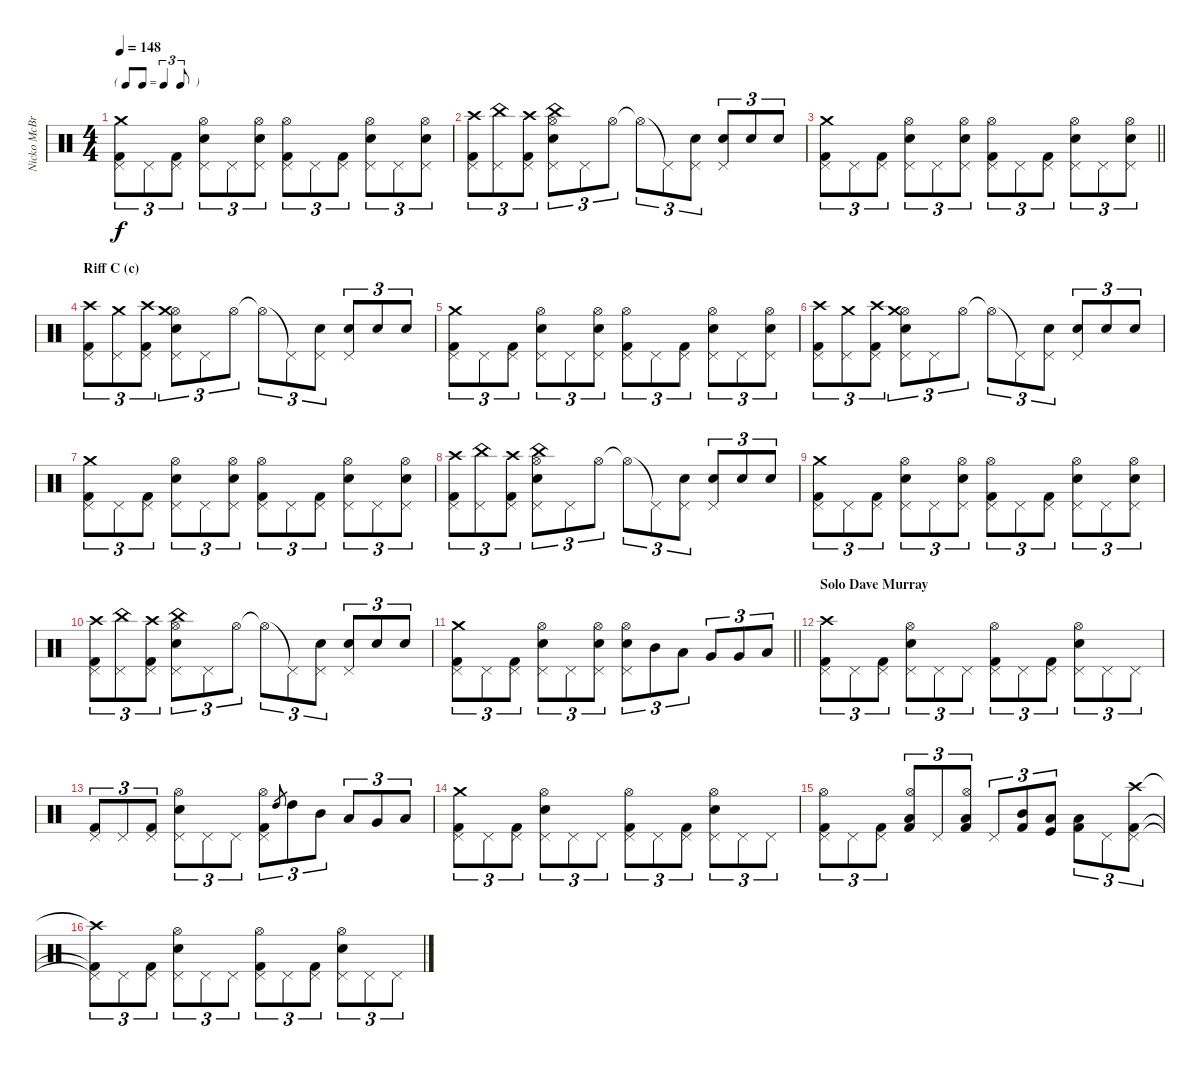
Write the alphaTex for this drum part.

\track ("Nicko McBrain" "Nicko McBr") {instrument percussion}
\staff {score}
\articulation defaults
\ts (4 4)
\tf triplet8th
\tempo 148
\clef neutral
\ks c
("Kick (hit) 2" "Pedal Hi-Hat (hit)" "Crash medium (hit)").8{tu (3 2) dy f} "Pedal Hi-Hat (hit)".8{tu (3 2)} ("Kick (hit) 2" "Pedal Hi-Hat (hit)").8{tu (3 2)} ("Snare (hit) 2" "Pedal Hi-Hat (hit)" "Hi-Hat (open)").8{tu (3 2)} "Pedal Hi-Hat (hit)".8{tu (3 2)} ("Snare (hit) 2" "Pedal Hi-Hat (hit)" "Hi-Hat (open)").8{tu (3 2)} ("Kick (hit) 2" "Pedal Hi-Hat (hit)" "Hi-Hat (open)").8{tu (3 2)} "Pedal Hi-Hat (hit)".8{tu (3 2)} ("Kick (hit) 2" "Pedal Hi-Hat (hit)").8{tu (3 2)} ("Snare (hit) 2" "Pedal Hi-Hat (hit)" "Hi-Hat (open)").8{tu (3 2)} "Pedal Hi-Hat (hit)".8{tu (3 2)} ("Snare (hit) 2" "Pedal Hi-Hat (hit)" "Hi-Hat (open)").8{tu (3 2)} |
("Kick (hit) 2" "Pedal Hi-Hat (hit)" "Crash high (hit)").8{tu (3 2)} ("Pedal Hi-Hat (hit)" "China (hit)").8{tu (3 2)} ("Kick (hit) 2" "Pedal Hi-Hat (hit)" "Crash high (hit)").8{tu (3 2)} ("Snare (hit) 2" "Pedal Hi-Hat (hit)" "Hi-Hat (open)" "China (hit)").8{tu (3 2)} "Pedal Hi-Hat (hit)".8{tu (3 2)} "Hi-Hat (open)".8{tu (3 2)} "Hi-Hat (open)"{t}.8{tu (3 2)} "Pedal Hi-Hat (hit)"{t}.8{tu (3 2)} ("Snare (hit) 2" "Pedal Hi-Hat (hit)").8{tu (3 2)} ("Snare (hit) 2" "Pedal Hi-Hat (hit)").8{tu (3 2)} "Snare (hit) 2".8{tu (3 2)} "Snare (hit) 2".8{tu (3 2)} |
\barLineRight lightlight
("Kick (hit) 2" "Pedal Hi-Hat (hit)" "Crash medium (hit)").8{tu (3 2)} "Pedal Hi-Hat (hit)".8{tu (3 2)} ("Kick (hit) 2" "Pedal Hi-Hat (hit)").8{tu (3 2)} ("Snare (hit) 2" "Pedal Hi-Hat (hit)" "Hi-Hat (open)").8{tu (3 2)} "Pedal Hi-Hat (hit)".8{tu (3 2)} ("Snare (hit) 2" "Pedal Hi-Hat (hit)" "Hi-Hat (open)").8{tu (3 2)} ("Kick (hit) 2" "Pedal Hi-Hat (hit)" "Hi-Hat (open)").8{tu (3 2)} "Pedal Hi-Hat (hit)".8{tu (3 2)} ("Kick (hit) 2" "Pedal Hi-Hat (hit)").8{tu (3 2)} ("Snare (hit) 2" "Pedal Hi-Hat (hit)" "Hi-Hat (open)").8{tu (3 2)} "Pedal Hi-Hat (hit)".8{tu (3 2)} ("Snare (hit) 2" "Pedal Hi-Hat (hit)" "Hi-Hat (open)").8{tu (3 2)} |
\section ("" "Riff C (c)")
("Kick (hit) 2" "Pedal Hi-Hat (hit)" "Crash high (hit)").8{tu (3 2)} ("Pedal Hi-Hat (hit)" "Crash medium (hit)").8{tu (3 2)} ("Kick (hit) 2" "Pedal Hi-Hat (hit)" "Crash high (hit)").8{tu (3 2)} ("Snare (hit) 2" "Pedal Hi-Hat (hit)" "Hi-Hat (open)" "Crash medium (hit)").8{tu (3 2)} "Pedal Hi-Hat (hit)".8{tu (3 2)} "Hi-Hat (open)".8{tu (3 2)} "Hi-Hat (open)"{t}.8{tu (3 2)} "Pedal Hi-Hat (hit)"{t}.8{tu (3 2)} ("Snare (hit) 2" "Pedal Hi-Hat (hit)").8{tu (3 2)} ("Snare (hit) 2" "Pedal Hi-Hat (hit)").8{tu (3 2)} "Snare (hit) 2".8{tu (3 2)} "Snare (hit) 2".8{tu (3 2)} |
("Kick (hit) 2" "Pedal Hi-Hat (hit)" "Crash medium (hit)").8{tu (3 2)} "Pedal Hi-Hat (hit)".8{tu (3 2)} ("Kick (hit) 2" "Pedal Hi-Hat (hit)").8{tu (3 2)} ("Snare (hit) 2" "Pedal Hi-Hat (hit)" "Hi-Hat (open)").8{tu (3 2)} "Pedal Hi-Hat (hit)".8{tu (3 2)} ("Snare (hit) 2" "Pedal Hi-Hat (hit)" "Hi-Hat (open)").8{tu (3 2)} ("Kick (hit) 2" "Pedal Hi-Hat (hit)" "Hi-Hat (open)").8{tu (3 2)} "Pedal Hi-Hat (hit)".8{tu (3 2)} ("Kick (hit) 2" "Pedal Hi-Hat (hit)").8{tu (3 2)} ("Snare (hit) 2" "Pedal Hi-Hat (hit)" "Hi-Hat (open)").8{tu (3 2)} "Pedal Hi-Hat (hit)".8{tu (3 2)} ("Snare (hit) 2" "Pedal Hi-Hat (hit)" "Hi-Hat (open)").8{tu (3 2)} |
("Kick (hit) 2" "Pedal Hi-Hat (hit)" "Crash high (hit)").8{tu (3 2)} ("Pedal Hi-Hat (hit)" "Crash medium (hit)").8{tu (3 2)} ("Kick (hit) 2" "Pedal Hi-Hat (hit)" "Crash high (hit)").8{tu (3 2)} ("Snare (hit) 2" "Pedal Hi-Hat (hit)" "Hi-Hat (open)" "Crash medium (hit)").8{tu (3 2)} "Pedal Hi-Hat (hit)".8{tu (3 2)} "Hi-Hat (open)".8{tu (3 2)} "Hi-Hat (open)"{t}.8{tu (3 2)} "Pedal Hi-Hat (hit)"{t}.8{tu (3 2)} ("Snare (hit) 2" "Pedal Hi-Hat (hit)").8{tu (3 2)} ("Snare (hit) 2" "Pedal Hi-Hat (hit)").8{tu (3 2)} "Snare (hit) 2".8{tu (3 2)} "Snare (hit) 2".8{tu (3 2)} |
("Kick (hit) 2" "Pedal Hi-Hat (hit)" "Crash medium (hit)").8{tu (3 2)} "Pedal Hi-Hat (hit)".8{tu (3 2)} ("Kick (hit) 2" "Pedal Hi-Hat (hit)").8{tu (3 2)} ("Snare (hit) 2" "Pedal Hi-Hat (hit)" "Hi-Hat (open)").8{tu (3 2)} "Pedal Hi-Hat (hit)".8{tu (3 2)} ("Snare (hit) 2" "Pedal Hi-Hat (hit)" "Hi-Hat (open)").8{tu (3 2)} ("Kick (hit) 2" "Pedal Hi-Hat (hit)" "Hi-Hat (open)").8{tu (3 2)} "Pedal Hi-Hat (hit)".8{tu (3 2)} ("Kick (hit) 2" "Pedal Hi-Hat (hit)").8{tu (3 2)} ("Snare (hit) 2" "Pedal Hi-Hat (hit)" "Hi-Hat (open)").8{tu (3 2)} "Pedal Hi-Hat (hit)".8{tu (3 2)} ("Snare (hit) 2" "Pedal Hi-Hat (hit)" "Hi-Hat (open)").8{tu (3 2)} |
("Kick (hit) 2" "Pedal Hi-Hat (hit)" "Crash high (hit)").8{tu (3 2)} ("Pedal Hi-Hat (hit)" "China (hit)").8{tu (3 2)} ("Kick (hit) 2" "Pedal Hi-Hat (hit)" "Crash high (hit)").8{tu (3 2)} ("Snare (hit) 2" "Pedal Hi-Hat (hit)" "Hi-Hat (open)" "China (hit)").8{tu (3 2)} "Pedal Hi-Hat (hit)".8{tu (3 2)} "Hi-Hat (open)".8{tu (3 2)} "Hi-Hat (open)"{t}.8{tu (3 2)} "Pedal Hi-Hat (hit)"{t}.8{tu (3 2)} ("Snare (hit) 2" "Pedal Hi-Hat (hit)").8{tu (3 2)} ("Snare (hit) 2" "Pedal Hi-Hat (hit)").8{tu (3 2)} "Snare (hit) 2".8{tu (3 2)} "Snare (hit) 2".8{tu (3 2)} |
("Kick (hit) 2" "Pedal Hi-Hat (hit)" "Crash medium (hit)").8{tu (3 2)} "Pedal Hi-Hat (hit)".8{tu (3 2)} ("Kick (hit) 2" "Pedal Hi-Hat (hit)").8{tu (3 2)} ("Snare (hit) 2" "Pedal Hi-Hat (hit)" "Hi-Hat (open)").8{tu (3 2)} "Pedal Hi-Hat (hit)".8{tu (3 2)} ("Snare (hit) 2" "Pedal Hi-Hat (hit)" "Hi-Hat (open)").8{tu (3 2)} ("Kick (hit) 2" "Pedal Hi-Hat (hit)" "Hi-Hat (open)").8{tu (3 2)} "Pedal Hi-Hat (hit)".8{tu (3 2)} ("Kick (hit) 2" "Pedal Hi-Hat (hit)").8{tu (3 2)} ("Snare (hit) 2" "Pedal Hi-Hat (hit)" "Hi-Hat (open)").8{tu (3 2)} "Pedal Hi-Hat (hit)".8{tu (3 2)} ("Snare (hit) 2" "Pedal Hi-Hat (hit)" "Hi-Hat (open)").8{tu (3 2)} |
("Kick (hit) 2" "Pedal Hi-Hat (hit)" "Crash high (hit)").8{tu (3 2)} ("Pedal Hi-Hat (hit)" "China (hit)").8{tu (3 2)} ("Kick (hit) 2" "Pedal Hi-Hat (hit)" "Crash high (hit)").8{tu (3 2)} ("Snare (hit) 2" "Pedal Hi-Hat (hit)" "Hi-Hat (open)" "China (hit)").8{tu (3 2)} "Pedal Hi-Hat (hit)".8{tu (3 2)} "Hi-Hat (open)".8{tu (3 2)} "Hi-Hat (open)"{t}.8{tu (3 2)} "Pedal Hi-Hat (hit)"{t}.8{tu (3 2)} ("Snare (hit) 2" "Pedal Hi-Hat (hit)").8{tu (3 2)} ("Snare (hit) 2" "Pedal Hi-Hat (hit)").8{tu (3 2)} "Snare (hit) 2".8{tu (3 2)} "Snare (hit) 2".8{tu (3 2)} |
\barLineRight lightlight
("Kick (hit) 2" "Pedal Hi-Hat (hit)" "Crash medium (hit)").8{tu (3 2)} "Pedal Hi-Hat (hit)".8{tu (3 2)} ("Kick (hit) 2" "Pedal Hi-Hat (hit)").8{tu (3 2)} ("Snare (hit) 2" "Pedal Hi-Hat (hit)" "Hi-Hat (open)").8{tu (3 2)} "Pedal Hi-Hat (hit)".8{tu (3 2)} ("Snare (hit) 2" "Pedal Hi-Hat (hit)" "Hi-Hat (open)").8{tu (3 2)} ("Snare (hit) 2" "Pedal Hi-Hat (hit)" "Hi-Hat (open)").8{tu (3 2)} "Mid Tom (hit)".8{tu (3 2)} "Low Tom (hit)".8{tu (3 2)} "Very Low Tom (hit)".8{tu (3 2)} "Very Low Tom (hit)".8{tu (3 2)} "Low Floor Tom (hit)".8{tu (3 2)} |
\section ("" "Solo Dave Murray")
("Kick (hit) 2" "Pedal Hi-Hat (hit)" "Crash high (hit)").8{tu (3 2)} "Pedal Hi-Hat (hit)".8{tu (3 2)} ("Kick (hit) 2" "Pedal Hi-Hat (hit)").8{tu (3 2)} ("Snare (hit) 2" "Pedal Hi-Hat (hit)" "Hi-Hat (open)").8{tu (3 2)} "Pedal Hi-Hat (hit)".8{tu (3 2)} "Pedal Hi-Hat (hit)".8{tu (3 2)} ("Kick (hit) 2" "Pedal Hi-Hat (hit)" "Hi-Hat (open)").8{tu (3 2)} "Pedal Hi-Hat (hit)".8{tu (3 2)} ("Kick (hit) 2" "Pedal Hi-Hat (hit)").8{tu (3 2)} ("Snare (hit) 2" "Pedal Hi-Hat (hit)" "Hi-Hat (open)").8{tu (3 2)} "Pedal Hi-Hat (hit)".8{tu (3 2)} "Pedal Hi-Hat (hit)".8{tu (3 2)} |
("Kick (hit) 2" "Pedal Hi-Hat (hit)").8{tu (3 2)} "Pedal Hi-Hat (hit)".8{tu (3 2)} ("Kick (hit) 2" "Pedal Hi-Hat (hit)").8{tu (3 2)} ("Snare (hit) 2" "Pedal Hi-Hat (hit)" "Hi-Hat (open)").8{tu (3 2)} "Pedal Hi-Hat (hit)".8{tu (3 2)} "Pedal Hi-Hat (hit)".8{tu (3 2)} ("Kick (hit) 2" "Pedal Hi-Hat (hit)" "Hi-Hat (open)").8{tu (3 2)} "High Tom (hit)".8{gr} "High Tom (hit)".8{tu (3 2)} "Mid Tom (hit)".8{tu (3 2)} "Low Tom (hit)".8{tu (3 2)} "Very Low Tom (hit)".8{tu (3 2)} "Low Floor Tom (hit)".8{tu (3 2)} |
("Kick (hit) 2" "Pedal Hi-Hat (hit)" "Crash medium (hit)").8{tu (3 2)} "Pedal Hi-Hat (hit)".8{tu (3 2)} ("Kick (hit) 2" "Pedal Hi-Hat (hit)").8{tu (3 2)} ("Snare (hit) 2" "Pedal Hi-Hat (hit)" "Hi-Hat (open)").8{tu (3 2)} "Pedal Hi-Hat (hit)".8{tu (3 2)} "Pedal Hi-Hat (hit)".8{tu (3 2)} ("Kick (hit) 2" "Pedal Hi-Hat (hit)" "Hi-Hat (open)").8{tu (3 2)} "Pedal Hi-Hat (hit)".8{tu (3 2)} ("Kick (hit) 2" "Pedal Hi-Hat (hit)").8{tu (3 2)} ("Snare (hit) 2" "Pedal Hi-Hat (hit)" "Hi-Hat (open)").8{tu (3 2)} "Pedal Hi-Hat (hit)".8{tu (3 2)} "Pedal Hi-Hat (hit)".8{tu (3 2)} |
("Kick (hit) 2" "Pedal Hi-Hat (hit)" "Hi-Hat (open)").8{tu (3 2)} "Pedal Hi-Hat (hit)".8{tu (3 2)} ("Kick (hit) 2" "Pedal Hi-Hat (hit)").8{tu (3 2)} ("Low Tom (hit)" "Kick (hit) 2" "Hi-Hat (open)").8{tu (3 2)} "Pedal Hi-Hat (hit)".8{tu (3 2)} ("Low Tom (hit)" "Kick (hit) 2" "Hi-Hat (open)").8{tu (3 2)} "Pedal Hi-Hat (hit)".8{tu (3 2)} ("Mid Tom (hit)" "Kick (hit) 2").8{tu (3 2)} ("Low Tom (hit)" "Kick (hit)").8{tu (3 2)} ("Low Floor Tom (hit)" "Kick (hit) 2").8{tu (3 2)} "Pedal Hi-Hat (hit)".8{tu (3 2)} ("Kick (hit) 2" "Pedal Hi-Hat (hit)" "Crash high (hit)").8{tu (3 2)} |
("Kick (hit) 2"{t} "Pedal Hi-Hat (hit)"{t} "Crash high (hit)"{t}).8{tu (3 2)} "Pedal Hi-Hat (hit)".8{tu (3 2)} ("Kick (hit) 2" "Pedal Hi-Hat (hit)").8{tu (3 2)} ("Snare (hit) 2" "Pedal Hi-Hat (hit)" "Hi-Hat (open)").8{tu (3 2)} "Pedal Hi-Hat (hit)".8{tu (3 2)} "Pedal Hi-Hat (hit)".8{tu (3 2)} ("Kick (hit) 2" "Pedal Hi-Hat (hit)" "Hi-Hat (open)").8{tu (3 2)} "Pedal Hi-Hat (hit)".8{tu (3 2)} ("Kick (hit) 2" "Pedal Hi-Hat (hit)").8{tu (3 2)} ("Snare (hit) 2" "Pedal Hi-Hat (hit)" "Hi-Hat (open)").8{tu (3 2)} "Pedal Hi-Hat (hit)".8{tu (3 2)} "Pedal Hi-Hat (hit)".8{tu (3 2)}
